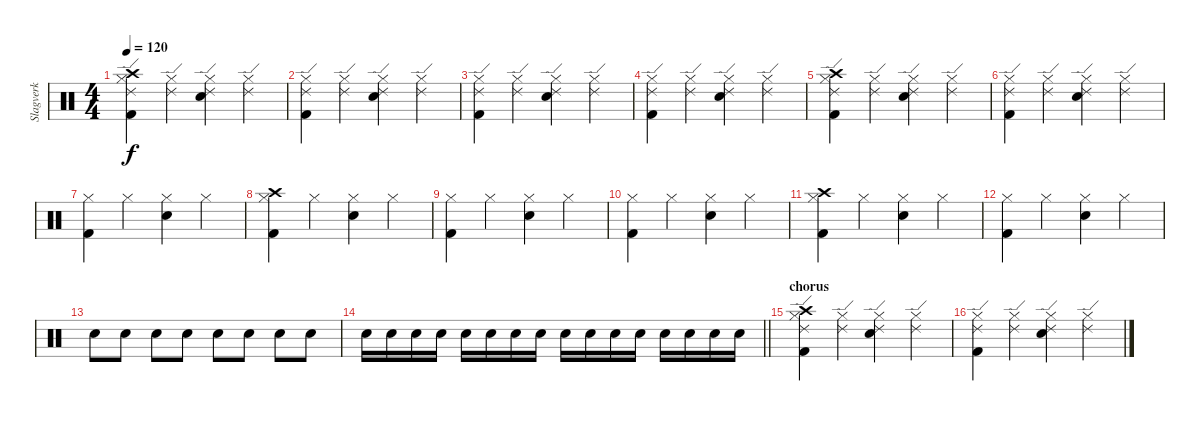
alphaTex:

\track ("Slagverk" "Slagverk") {instrument percussion}
\staff {score}
\articulation defaults
\ts (4 4)
\tempo 120
\clef neutral
\ks c
("Hi-Hat (closed)" "Kick (hit) 2" "Crash high (hit)" "Ride (edge) 2").4{dy f} ("Hi-Hat (closed)" "Ride (edge) 2").4 ("Hi-Hat (closed)" "Snare (hit) 2" "Ride (edge) 2").4 ("Hi-Hat (closed)" "Ride (edge) 2").4 |
("Hi-Hat (closed)" "Kick (hit) 2" "Ride (edge) 2").4 ("Hi-Hat (closed)" "Ride (edge) 2").4 ("Hi-Hat (closed)" "Snare (hit) 2" "Ride (edge) 2").4 ("Hi-Hat (closed)" "Ride (edge) 2").4 |
("Hi-Hat (closed)" "Kick (hit) 2" "Ride (edge) 2").4 ("Hi-Hat (closed)" "Ride (edge) 2").4 ("Hi-Hat (closed)" "Snare (hit) 2" "Ride (edge) 2").4 ("Hi-Hat (closed)" "Ride (edge) 2").4 |
("Hi-Hat (closed)" "Kick (hit) 2" "Ride (edge) 2").4 ("Hi-Hat (closed)" "Ride (edge) 2").4 ("Hi-Hat (closed)" "Snare (hit) 2" "Ride (edge) 2").4 ("Hi-Hat (closed)" "Ride (edge) 2").4 |
("Hi-Hat (closed)" "Kick (hit) 2" "Crash high (hit)" "Ride (edge) 2").4 ("Hi-Hat (closed)" "Ride (edge) 2").4 ("Hi-Hat (closed)" "Snare (hit) 2" "Ride (edge) 2").4 ("Hi-Hat (closed)" "Ride (edge) 2").4 |
("Hi-Hat (closed)" "Kick (hit) 2" "Ride (edge) 2").4 ("Hi-Hat (closed)" "Ride (edge) 2").4 ("Hi-Hat (closed)" "Snare (hit) 2" "Ride (edge) 2").4 ("Hi-Hat (closed)" "Ride (edge) 2").4 |
("Hi-Hat (closed)" "Kick (hit) 2").4 "Hi-Hat (closed)".4 ("Hi-Hat (closed)" "Snare (hit) 2").4 "Hi-Hat (closed)".4 |
("Hi-Hat (closed)" "Kick (hit) 2" "Crash high (hit)").4 "Hi-Hat (closed)".4 ("Hi-Hat (closed)" "Snare (hit) 2").4 "Hi-Hat (closed)".4 |
("Hi-Hat (closed)" "Kick (hit) 2").4 "Hi-Hat (closed)".4 ("Hi-Hat (closed)" "Snare (hit) 2").4 "Hi-Hat (closed)".4 |
("Hi-Hat (closed)" "Kick (hit) 2").4 "Hi-Hat (closed)".4 ("Hi-Hat (closed)" "Snare (hit) 2").4 "Hi-Hat (closed)".4 |
("Hi-Hat (closed)" "Kick (hit) 2" "Crash high (hit)").4 "Hi-Hat (closed)".4 ("Hi-Hat (closed)" "Snare (hit) 2").4 "Hi-Hat (closed)".4 |
("Hi-Hat (closed)" "Kick (hit) 2").4 "Hi-Hat (closed)".4 ("Hi-Hat (closed)" "Snare (hit) 2").4 "Hi-Hat (closed)".4 |
"Snare (hit) 2".8 "Snare (hit) 2".8 "Snare (hit) 2".8 "Snare (hit) 2".8 "Snare (hit) 2".8 "Snare (hit) 2".8 "Snare (hit) 2".8 "Snare (hit) 2".8 |
\barLineRight lightlight "Snare (hit) 2".16 "Snare (hit) 2".16 "Snare (hit) 2".16 "Snare (hit) 2".16 "Snare (hit) 2".16 "Snare (hit) 2".16 "Snare (hit) 2".16 "Snare (hit) 2".16 "Snare (hit) 2".16 "Snare (hit) 2".16 "Snare (hit) 2".16 "Snare (hit) 2".16 "Snare (hit) 2".16 "Snare (hit) 2".16 "Snare (hit) 2".16 "Snare (hit) 2".16
|
\section ("" "chorus")
("Hi-Hat (closed)" "Kick (hit) 2" "Crash high (hit)" "Ride (edge) 2").4 ("Hi-Hat (closed)" "Ride (edge) 2").4 ("Hi-Hat (closed)" "Snare (hit) 2" "Ride (edge) 2").4 ("Hi-Hat (closed)" "Ride (edge) 2").4 |
("Hi-Hat (closed)" "Kick (hit) 2" "Ride (edge) 2").4 ("Hi-Hat (closed)" "Ride (edge) 2").4 ("Hi-Hat (closed)" "Snare (hit) 2" "Ride (edge) 2").4 ("Hi-Hat (closed)" "Ride (edge) 2").4
